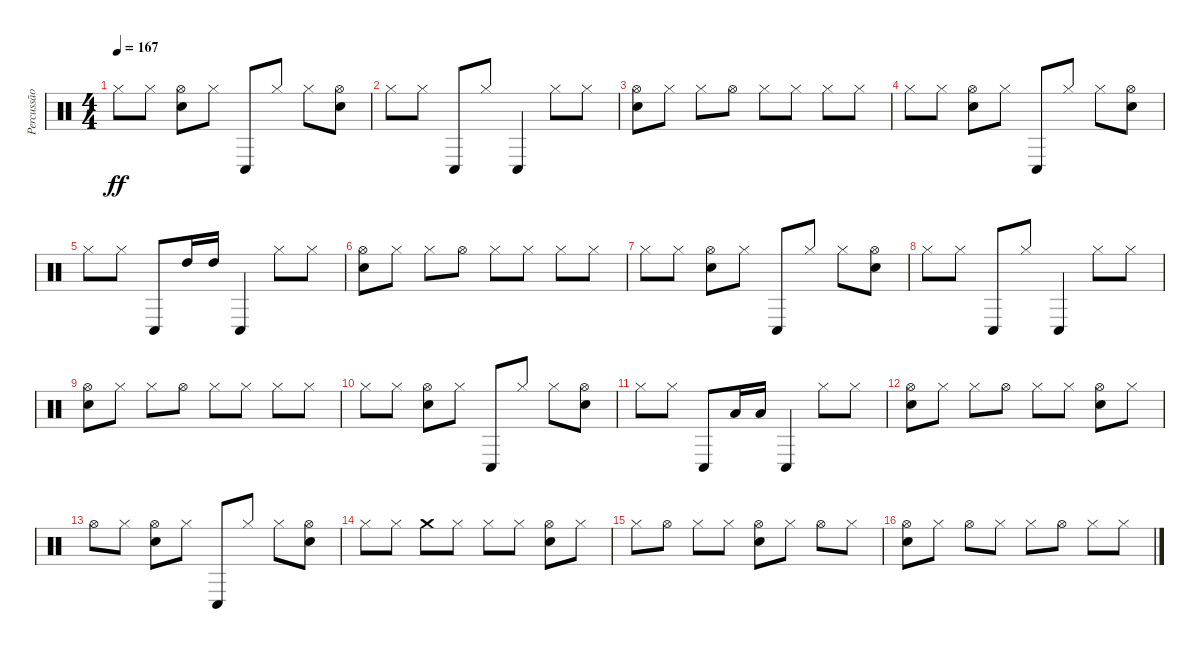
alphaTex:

\track ("Percussão" "Percussão") {instrument percussion}
\staff {score}
\articulation defaults
\ts (4 4)
\tempo 167
\clef neutral
\ks c "Hi-Hat (closed)".8{dy ff} "Hi-Hat (closed)".8
("Electric Snare (hit)" "Hi-Hat (open)").8 "Hi-Hat (closed)".8 "Conga low (hit)".8 "Hi-Hat (closed)".8 "Hi-Hat (closed)".8 ("Electric Snare (hit)" "Hi-Hat (open)").8 |
"Hi-Hat (closed)".8 "Hi-Hat (closed)".8 "Conga low (hit)".8 "Hi-Hat (closed)".8 "Conga low (hit)".4 "Hi-Hat (closed)".8 "Hi-Hat (closed)".8 |
("Electric Snare (hit)" "Hi-Hat (open)").8 "Hi-Hat (closed)".8 "Hi-Hat (closed)".8 "Hi-Hat (open)".8 "Hi-Hat (closed)".8 "Hi-Hat (closed)".8 "Hi-Hat (closed)".8 "Hi-Hat (closed)".8 |
"Hi-Hat (closed)".8 "Hi-Hat (closed)".8 ("Electric Snare (hit)" "Hi-Hat (open)").8 "Hi-Hat (closed)".8 "Conga low (hit)".8 "Hi-Hat (closed)".8 "Hi-Hat (closed)".8 ("Electric Snare (hit)" "Hi-Hat (open)").8 |
"Hi-Hat (closed)".8 "Hi-Hat (closed)".8 "Conga low (hit)".8 "High Tom (hit)".16 "High Tom (hit)".16 "Conga low (hit)".4 "Hi-Hat (closed)".8 "Hi-Hat (closed)".8 |
("Electric Snare (hit)" "Hi-Hat (open)").8 "Hi-Hat (closed)".8 "Hi-Hat (closed)".8 "Hi-Hat (open)".8 "Hi-Hat (closed)".8 "Hi-Hat (closed)".8 "Hi-Hat (closed)".8 "Hi-Hat (closed)".8 |
"Hi-Hat (closed)".8 "Hi-Hat (closed)".8 ("Electric Snare (hit)" "Hi-Hat (open)").8 "Hi-Hat (closed)".8 "Conga low (hit)".8 "Hi-Hat (closed)".8 "Hi-Hat (closed)".8 ("Electric Snare (hit)" "Hi-Hat (open)").8 |
"Hi-Hat (closed)".8 "Hi-Hat (closed)".8 "Conga low (hit)".8 "Hi-Hat (closed)".8 "Conga low (hit)".4 "Hi-Hat (closed)".8 "Hi-Hat (closed)".8 |
("Electric Snare (hit)" "Hi-Hat (open)").8 "Hi-Hat (closed)".8 "Hi-Hat (closed)".8 "Hi-Hat (open)".8 "Hi-Hat (closed)".8 "Hi-Hat (closed)".8 "Hi-Hat (closed)".8 "Hi-Hat (closed)".8 |
"Hi-Hat (closed)".8 "Hi-Hat (closed)".8 ("Electric Snare (hit)" "Hi-Hat (open)").8 "Hi-Hat (closed)".8 "Conga low (hit)".8 "Hi-Hat (closed)".8 "Hi-Hat (closed)".8 ("Electric Snare (hit)" "Hi-Hat (open)").8 |
"Hi-Hat (closed)".8 "Hi-Hat (closed)".8 "Conga low (hit)".8 "Low Tom (hit)".16 "Low Tom (hit)".16 "Conga low (hit)".4 "Hi-Hat (closed)".8 "Hi-Hat (closed)".8 |
("Electric Snare (hit)" "Hi-Hat (open)").8 "Hi-Hat (closed)".8 "Hi-Hat (closed)".8 "Hi-Hat (open)".8 "Hi-Hat (closed)".8 "Hi-Hat (closed)".8 ("Electric Snare (hit)" "Hi-Hat (open)").8 "Hi-Hat (closed)".8 |
"Hi-Hat (open)".8 "Hi-Hat (closed)".8 ("Electric Snare (hit)" "Hi-Hat (open)").8 "Hi-Hat (closed)".8 "Conga low (hit)".8 "Hi-Hat (closed)".8 "Hi-Hat (closed)".8 ("Electric Snare (hit)" "Hi-Hat (open)").8 |
"Hi-Hat (closed)".8 "Hi-Hat (closed)".8 "Crash medium (hit)".8 "Hi-Hat (closed)".8 "Hi-Hat (closed)".8 "Hi-Hat (closed)".8 ("Electric Snare (hit)" "Hi-Hat (open)").8 "Hi-Hat (closed)".8 |
"Hi-Hat (closed)".8 "Hi-Hat (open)".8 "Hi-Hat (closed)".8 "Hi-Hat (closed)".8 ("Electric Snare (hit)" "Hi-Hat (open)").8 "Hi-Hat (closed)".8 "Hi-Hat (open)".8 "Hi-Hat (closed)".8 |
("Electric Snare (hit)" "Hi-Hat (open)").8 "Hi-Hat (closed)".8 "Hi-Hat (open)".8 "Hi-Hat (closed)".8 "Hi-Hat (closed)".8 "Hi-Hat (open)".8 "Hi-Hat (closed)".8 "Hi-Hat (closed)".8
